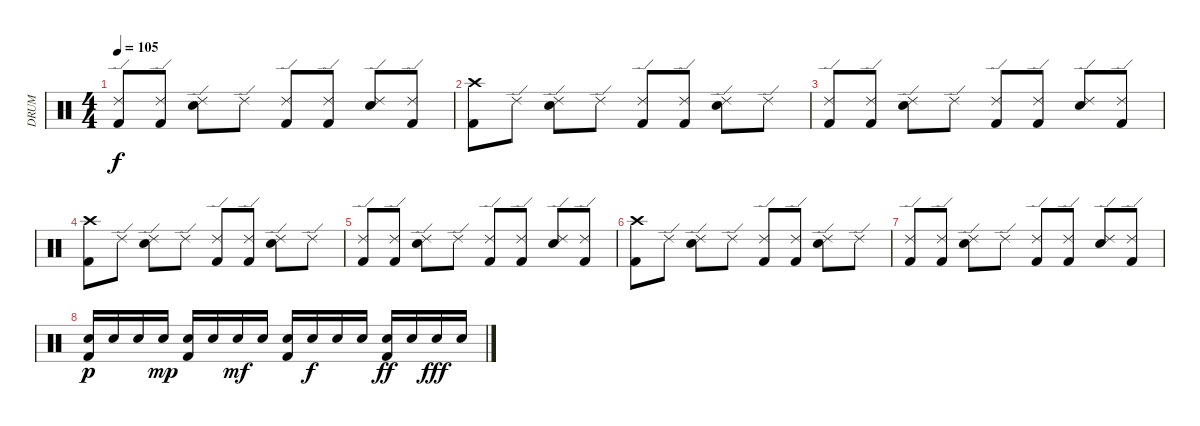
\track ("DRUM" "DRUM") {instrument percussion}
\staff {score}
\articulation defaults
\ts (4 4)
\tempo 105
\clef neutral
\ks c
("Ride (edge) 2" "Kick (hit) 2").8{dy f} ("Ride (edge) 2" "Kick (hit) 2").8 ("Ride (edge) 2" "Snare (hit) 2").8 "Ride (edge) 2".8 ("Ride (edge) 2" "Kick (hit) 2").8 ("Ride (edge) 2" "Kick (hit) 2").8 ("Ride (edge) 2" "Snare (hit) 2").8 ("Ride (edge) 2" "Kick (hit) 2").8 |
("Crash high (hit)" "Kick (hit) 2").8 "Ride (edge) 2".8 ("Ride (edge) 2" "Snare (hit) 2").8 "Ride (edge) 2".8 ("Ride (edge) 2" "Kick (hit) 2").8 ("Ride (edge) 2" "Kick (hit) 2").8 ("Ride (edge) 2" "Snare (hit) 2").8 "Ride (edge) 2".8 |
("Ride (edge) 2" "Kick (hit) 2").8 ("Ride (edge) 2" "Kick (hit) 2").8 ("Ride (edge) 2" "Snare (hit) 2").8 "Ride (edge) 2".8 ("Ride (edge) 2" "Kick (hit) 2").8 ("Ride (edge) 2" "Kick (hit) 2").8 ("Ride (edge) 2" "Snare (hit) 2").8 ("Ride (edge) 2" "Kick (hit) 2").8 |
("Crash high (hit)" "Kick (hit) 2").8 "Ride (edge) 2".8 ("Ride (edge) 2" "Snare (hit) 2").8 "Ride (edge) 2".8 ("Ride (edge) 2" "Kick (hit) 2").8 ("Ride (edge) 2" "Kick (hit) 2").8 ("Ride (edge) 2" "Snare (hit) 2").8 "Ride (edge) 2".8 |
("Ride (edge) 2" "Kick (hit) 2").8 ("Ride (edge) 2" "Kick (hit) 2").8 ("Ride (edge) 2" "Snare (hit) 2").8 "Ride (edge) 2".8 ("Ride (edge) 2" "Kick (hit) 2").8 ("Ride (edge) 2" "Kick (hit) 2").8 ("Ride (edge) 2" "Snare (hit) 2").8 ("Ride (edge) 2" "Kick (hit) 2").8 |
("Crash high (hit)" "Kick (hit) 2").8 "Ride (edge) 2".8 ("Ride (edge) 2" "Snare (hit) 2").8 "Ride (edge) 2".8 ("Ride (edge) 2" "Kick (hit) 2").8 ("Ride (edge) 2" "Kick (hit) 2").8 ("Ride (edge) 2" "Snare (hit) 2").8 "Ride (edge) 2".8 |
("Ride (edge) 2" "Kick (hit) 2").8 ("Ride (edge) 2" "Kick (hit) 2").8 ("Ride (edge) 2" "Snare (hit) 2").8 "Ride (edge) 2".8 ("Ride (edge) 2" "Kick (hit) 2").8 ("Ride (edge) 2" "Kick (hit) 2").8 ("Ride (edge) 2" "Snare (hit) 2").8 ("Ride (edge) 2" "Kick (hit) 2").8 |
("Snare (hit) 2" "Kick (hit) 2").16{dy p} "Snare (hit) 2".16 "Snare (hit) 2".16 "Snare (hit) 2".16{dy mp} ("Snare (hit) 2" "Kick (hit) 2").16 "Snare (hit) 2".16 "Snare (hit) 2".16{dy mf} "Snare (hit) 2".16 ("Snare (hit) 2" "Kick (hit) 2").16 "Snare (hit) 2".16{dy f} "Snare (hit) 2".16 "Snare (hit) 2".16 ("Snare (hit) 2" "Kick (hit) 2").16{dy ff} "Snare (hit) 2".16 "Snare (hit) 2".16{dy fff} "Snare (hit) 2".16
